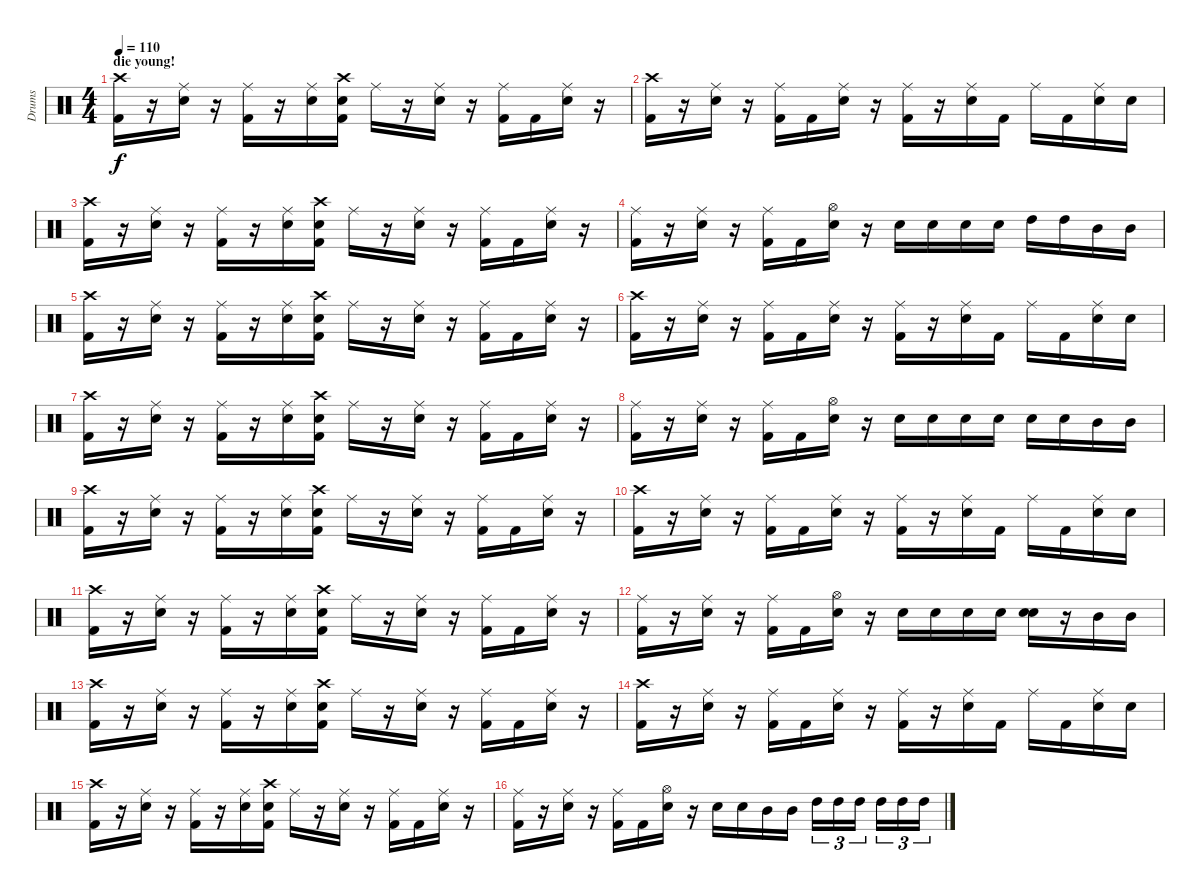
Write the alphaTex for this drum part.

\track ("Drums" "Drums") {instrument percussion}
\staff {score}
\articulation defaults
\ts (4 4)
\section ("" "die young!")
\tempo 110
\clef neutral
\ks c
("Crash high (hit)" "Kick (hit) 2").16{dy f} r.16 ("Ride (middle)" "Electric Snare (hit)").16 r.16 ("Ride (middle)" "Kick (hit) 2").16 r.16 ("Ride (middle)" "Electric Snare (hit)").16 ("Crash high (hit)" "Kick (hit) 2" "Electric Snare (hit)").16 "Ride (middle)".16 r.16 ("Ride (middle)" "Electric Snare (hit)").16 r.16 ("Ride (middle)" "Kick (hit) 2").16 "Kick (hit) 2".16 ("Ride (middle)" "Electric Snare (hit)").16 r.16 |
("Crash high (hit)" "Kick (hit) 2").16 r.16 ("Ride (middle)" "Electric Snare (hit)").16 r.16 ("Ride (middle)" "Kick (hit) 2").16 "Kick (hit) 2".16 ("Ride (middle)" "Electric Snare (hit)").16 r.16 ("Ride (middle)" "Kick (hit) 2").16 r.16 ("Ride (middle)" "Electric Snare (hit)").16 "Kick (hit) 2".16 "Ride (middle)".16 "Kick (hit) 2".16 ("Ride (middle)" "Electric Snare (hit)").16 "Electric Snare (hit)".16 |
("Crash high (hit)" "Kick (hit) 2").16 r.16 ("Ride (middle)" "Electric Snare (hit)").16 r.16 ("Ride (middle)" "Kick (hit) 2").16 r.16 ("Ride (middle)" "Electric Snare (hit)").16 ("Crash high (hit)" "Kick (hit) 2" "Electric Snare (hit)").16 "Ride (middle)".16 r.16 ("Ride (middle)" "Electric Snare (hit)").16 r.16 ("Ride (middle)" "Kick (hit) 2").16 "Kick (hit) 2".16 ("Ride (middle)" "Electric Snare (hit)").16 r.16 |
("Ride (middle)" "Kick (hit) 2").16 r.16 ("Ride (middle)" "Electric Snare (hit)").16 r.16 ("Ride (middle)" "Kick (hit) 2").16 "Kick (hit) 2".16 ("Hi-Hat (open)" "Electric Snare (hit)").16 r.16 "Electric Snare (hit)".16 "Electric Snare (hit)".16 "Electric Snare (hit)".16 "Electric Snare (hit)".16 "High Tom (hit)".16 "High Tom (hit)".16 "Mid Tom (hit)".16 "Mid Tom (hit)".16 |
("Crash high (hit)" "Kick (hit) 2").16 r.16 ("Ride (middle)" "Electric Snare (hit)").16 r.16 ("Ride (middle)" "Kick (hit) 2").16 r.16 ("Ride (middle)" "Electric Snare (hit)").16 ("Crash high (hit)" "Kick (hit) 2" "Electric Snare (hit)").16 "Ride (middle)".16 r.16 ("Ride (middle)" "Electric Snare (hit)").16 r.16 ("Ride (middle)" "Kick (hit) 2").16 "Kick (hit) 2".16 ("Ride (middle)" "Electric Snare (hit)").16 r.16 |
("Crash high (hit)" "Kick (hit) 2").16 r.16 ("Ride (middle)" "Electric Snare (hit)").16 r.16 ("Ride (middle)" "Kick (hit) 2").16 "Kick (hit) 2".16 ("Ride (middle)" "Electric Snare (hit)").16 r.16 ("Ride (middle)" "Kick (hit) 2").16 r.16 ("Ride (middle)" "Electric Snare (hit)").16 "Kick (hit) 2".16 "Ride (middle)".16 "Kick (hit) 2".16 ("Ride (middle)" "Electric Snare (hit)").16 "Electric Snare (hit)".16 |
("Crash high (hit)" "Kick (hit) 2").16 r.16 ("Ride (middle)" "Electric Snare (hit)").16 r.16 ("Ride (middle)" "Kick (hit) 2").16 r.16 ("Ride (middle)" "Electric Snare (hit)").16 ("Crash high (hit)" "Kick (hit) 2" "Electric Snare (hit)").16 "Ride (middle)".16 r.16 ("Ride (middle)" "Electric Snare (hit)").16 r.16 ("Ride (middle)" "Kick (hit) 2").16 "Kick (hit) 2".16 ("Ride (middle)" "Electric Snare (hit)").16 r.16 |
("Ride (middle)" "Kick (hit) 2").16 r.16 ("Ride (middle)" "Electric Snare (hit)").16 r.16 ("Ride (middle)" "Kick (hit) 2").16 "Kick (hit) 2".16 ("Hi-Hat (open)" "Electric Snare (hit)").16 r.16 "Electric Snare (hit)".16 "Electric Snare (hit)".16 "Electric Snare (hit)".16 "Electric Snare (hit)".16 "Electric Snare (hit)".16 "Electric Snare (hit)".16 "Mid Tom (hit)".16 "Mid Tom (hit)".16 |
("Crash high (hit)" "Kick (hit) 2").16 r.16 ("Ride (middle)" "Electric Snare (hit)").16 r.16 ("Ride (middle)" "Kick (hit) 2").16 r.16 ("Ride (middle)" "Electric Snare (hit)").16 ("Crash high (hit)" "Kick (hit) 2" "Electric Snare (hit)").16 "Ride (middle)".16 r.16 ("Ride (middle)" "Electric Snare (hit)").16 r.16 ("Ride (middle)" "Kick (hit) 2").16 "Kick (hit) 2".16 ("Ride (middle)" "Electric Snare (hit)").16 r.16 |
("Crash high (hit)" "Kick (hit) 2").16 r.16 ("Ride (middle)" "Electric Snare (hit)").16 r.16 ("Ride (middle)" "Kick (hit) 2").16 "Kick (hit) 2".16 ("Ride (middle)" "Electric Snare (hit)").16 r.16 ("Ride (middle)" "Kick (hit) 2").16 r.16 ("Ride (middle)" "Electric Snare (hit)").16 "Kick (hit) 2".16 "Ride (middle)".16 "Kick (hit) 2".16 ("Ride (middle)" "Electric Snare (hit)").16 "Electric Snare (hit)".16 |
("Crash high (hit)" "Kick (hit) 2").16 r.16 ("Ride (middle)" "Electric Snare (hit)").16 r.16 ("Ride (middle)" "Kick (hit) 2").16 r.16 ("Ride (middle)" "Electric Snare (hit)").16 ("Crash high (hit)" "Kick (hit) 2" "Electric Snare (hit)").16 "Ride (middle)".16 r.16 ("Ride (middle)" "Electric Snare (hit)").16 r.16 ("Ride (middle)" "Kick (hit) 2").16 "Kick (hit) 2".16 ("Ride (middle)" "Electric Snare (hit)").16 r.16 |
("Ride (middle)" "Kick (hit) 2").16 r.16 ("Ride (middle)" "Electric Snare (hit)").16 r.16 ("Ride (middle)" "Kick (hit) 2").16 "Kick (hit) 2".16 ("Hi-Hat (open)" "Electric Snare (hit)").16 r.16 "Electric Snare (hit)".16 "Electric Snare (hit)".16 "Electric Snare (hit)".16 "Electric Snare (hit)".16 ("Electric Snare (hit)" "Electric Snare (hit)").16 r.16 "Mid Tom (hit)".16 "Mid Tom (hit)".16 |
("Crash high (hit)" "Kick (hit) 2").16 r.16 ("Ride (middle)" "Electric Snare (hit)").16 r.16 ("Ride (middle)" "Kick (hit) 2").16 r.16 ("Ride (middle)" "Electric Snare (hit)").16 ("Crash high (hit)" "Kick (hit) 2" "Electric Snare (hit)").16 "Ride (middle)".16 r.16 ("Ride (middle)" "Electric Snare (hit)").16 r.16 ("Ride (middle)" "Kick (hit) 2").16 "Kick (hit) 2".16 ("Ride (middle)" "Electric Snare (hit)").16 r.16 |
("Crash high (hit)" "Kick (hit) 2").16 r.16 ("Ride (middle)" "Electric Snare (hit)").16 r.16 ("Ride (middle)" "Kick (hit) 2").16 "Kick (hit) 2".16 ("Ride (middle)" "Electric Snare (hit)").16 r.16 ("Ride (middle)" "Kick (hit) 2").16 r.16 ("Ride (middle)" "Electric Snare (hit)").16 "Kick (hit) 2".16 "Ride (middle)".16 "Kick (hit) 2".16 ("Ride (middle)" "Electric Snare (hit)").16 "Electric Snare (hit)".16 |
("Crash high (hit)" "Kick (hit) 2").16 r.16 ("Ride (middle)" "Electric Snare (hit)").16 r.16 ("Ride (middle)" "Kick (hit) 2").16 r.16 ("Ride (middle)" "Electric Snare (hit)").16 ("Crash high (hit)" "Kick (hit) 2" "Electric Snare (hit)").16 "Ride (middle)".16 r.16 ("Ride (middle)" "Electric Snare (hit)").16 r.16 ("Ride (middle)" "Kick (hit) 2").16 "Kick (hit) 2".16 ("Ride (middle)" "Electric Snare (hit)").16 r.16 |
("Ride (middle)" "Kick (hit) 2").16 r.16 ("Ride (middle)" "Electric Snare (hit)").16 r.16 ("Ride (middle)" "Kick (hit) 2").16 "Kick (hit) 2".16 ("Hi-Hat (open)" "Electric Snare (hit)").16 r.16 "Electric Snare (hit)".16 "Electric Snare (hit)".16 "Mid Tom (hit)".16 "Mid Tom (hit)".16 "High Tom (hit)".16{tu (3 2)} "High Tom (hit)".16{tu (3 2)} "High Tom (hit)".16{tu (3 2)} "High Tom (hit)".16{tu (3 2)} "High Tom (hit)".16{tu (3 2)} "High Tom (hit)".16{tu (3 2)}
